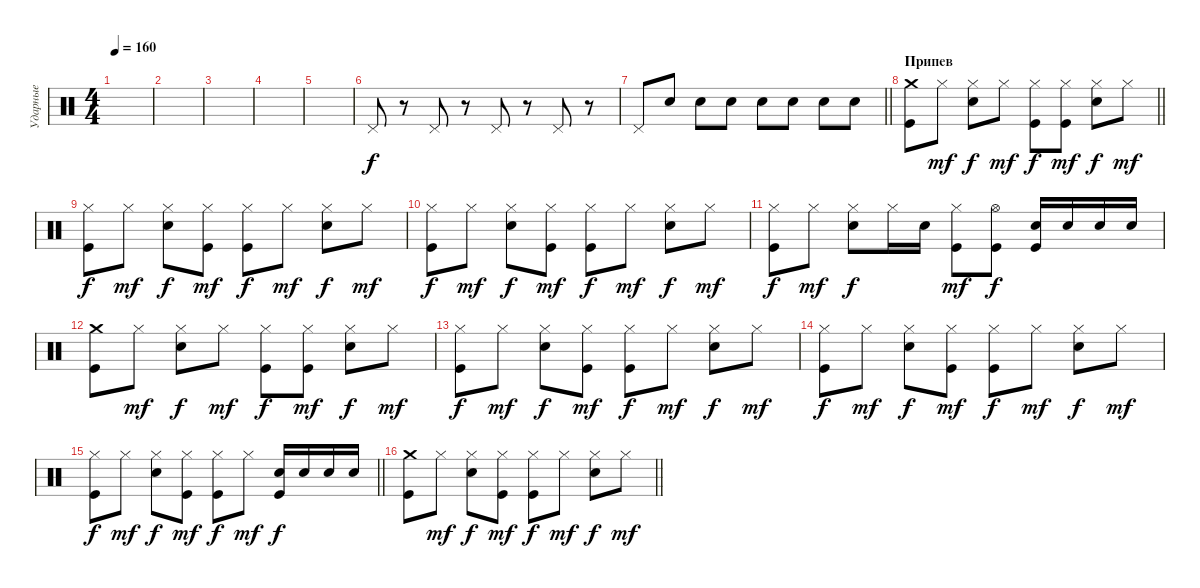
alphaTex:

\track ("Ударные" "Ударные") {instrument percussion}
\staff {score}
\articulation defaults
\ts (4 4)
\tempo 160
\clef neutral
\ks c
|
|
|
|
|
"Pedal Hi-Hat (hit)".8 r.8 "Pedal Hi-Hat (hit)".8 r.8 "Pedal Hi-Hat (hit)".8 r.8 "Pedal Hi-Hat (hit)".8 r.8 |
\barLineRight lightlight "Pedal Hi-Hat (hit)".8 "Electric Snare (hit)".8 "Electric Snare (hit)".8 "Electric Snare (hit)".8 "Electric Snare (hit)".8 "Electric Snare (hit)".8 "Electric Snare (hit)".8 "Electric Snare (hit)".8
|
\section ("" "Припев")
\barLineRight lightlight
("Crash medium (hit)" "Kick (hit)").8 "Hi-Hat (closed)".8{dy mf} ("Hi-Hat (closed)" "Electric Snare (hit)").8{dy f} "Hi-Hat (closed)".8{dy mf} ("Hi-Hat (closed)" "Kick (hit)").8{dy f} ("Hi-Hat (closed)" "Kick (hit)").8{dy mf} ("Hi-Hat (closed)" "Electric Snare (hit)").8{dy f} "Hi-Hat (closed)".8{dy mf} |
("Hi-Hat (closed)" "Kick (hit)").8{dy f} "Hi-Hat (closed)".8{dy mf} ("Hi-Hat (closed)" "Electric Snare (hit)").8{dy f} ("Hi-Hat (closed)" "Kick (hit)").8{dy mf} ("Hi-Hat (closed)" "Kick (hit)").8{dy f} "Hi-Hat (closed)".8{dy mf} ("Hi-Hat (closed)" "Electric Snare (hit)").8{dy f} "Hi-Hat (closed)".8{dy mf} |
("Hi-Hat (closed)" "Kick (hit)").8{dy f} "Hi-Hat (closed)".8{dy mf} ("Hi-Hat (closed)" "Electric Snare (hit)").8{dy f} ("Hi-Hat (closed)" "Kick (hit)").8{dy mf} ("Hi-Hat (closed)" "Kick (hit)").8{dy f} "Hi-Hat (closed)".8{dy mf} ("Hi-Hat (closed)" "Electric Snare (hit)").8{dy f} "Hi-Hat (closed)".8{dy mf} |
("Hi-Hat (closed)" "Kick (hit)").8{dy f} "Hi-Hat (closed)".8{dy mf} ("Hi-Hat (closed)" "Electric Snare (hit)").8{dy f} "Hi-Hat (closed)".16 "Electric Snare (hit)".16 ("Hi-Hat (closed)" "Kick (hit)").8{dy mf} ("Hi-Hat (open)" "Kick (hit)").8{dy f} ("Electric Snare (hit)" "Kick (hit)").16 "Electric Snare (hit)".16 "Electric Snare (hit)".16 "Electric Snare (hit)".16 |
("Crash medium (hit)" "Kick (hit)").8 "Hi-Hat (closed)".8{dy mf} ("Hi-Hat (closed)" "Electric Snare (hit)").8{dy f} "Hi-Hat (closed)".8{dy mf} ("Hi-Hat (closed)" "Kick (hit)").8{dy f} ("Hi-Hat (closed)" "Kick (hit)").8{dy mf} ("Hi-Hat (closed)" "Electric Snare (hit)").8{dy f} "Hi-Hat (closed)".8{dy mf} |
("Hi-Hat (closed)" "Kick (hit)").8{dy f} "Hi-Hat (closed)".8{dy mf} ("Hi-Hat (closed)" "Electric Snare (hit)").8{dy f} ("Hi-Hat (closed)" "Kick (hit)").8{dy mf} ("Hi-Hat (closed)" "Kick (hit)").8{dy f} "Hi-Hat (closed)".8{dy mf} ("Hi-Hat (closed)" "Electric Snare (hit)").8{dy f} "Hi-Hat (closed)".8{dy mf} |
("Hi-Hat (closed)" "Kick (hit)").8{dy f} "Hi-Hat (closed)".8{dy mf} ("Hi-Hat (closed)" "Electric Snare (hit)").8{dy f} ("Hi-Hat (closed)" "Kick (hit)").8{dy mf} ("Hi-Hat (closed)" "Kick (hit)").8{dy f} "Hi-Hat (closed)".8{dy mf} ("Hi-Hat (closed)" "Electric Snare (hit)").8{dy f} "Hi-Hat (closed)".8{dy mf} |
\barLineRight lightlight
("Hi-Hat (closed)" "Kick (hit)").8{dy f} "Hi-Hat (closed)".8{dy mf} ("Hi-Hat (closed)" "Electric Snare (hit)").8{dy f} ("Hi-Hat (closed)" "Kick (hit)").8{dy mf} ("Hi-Hat (closed)" "Kick (hit)").8{dy f} "Hi-Hat (closed)".8{dy mf} ("Electric Snare (hit)" "Kick (hit)").16{dy f} "Electric Snare (hit)".16 "Electric Snare (hit)".16 "Electric Snare (hit)".16 |
\section ("" " ")
\barLineRight lightlight
("Crash medium (hit)" "Kick (hit)").8 "Hi-Hat (closed)".8{dy mf} ("Hi-Hat (closed)" "Electric Snare (hit)").8{dy f} ("Hi-Hat (closed)" "Kick (hit)").8{dy mf} ("Hi-Hat (closed)" "Kick (hit)").8{dy f} "Hi-Hat (closed)".8{dy mf} ("Hi-Hat (closed)" "Electric Snare (hit)").8{dy f} "Hi-Hat (closed)".8{dy mf}
